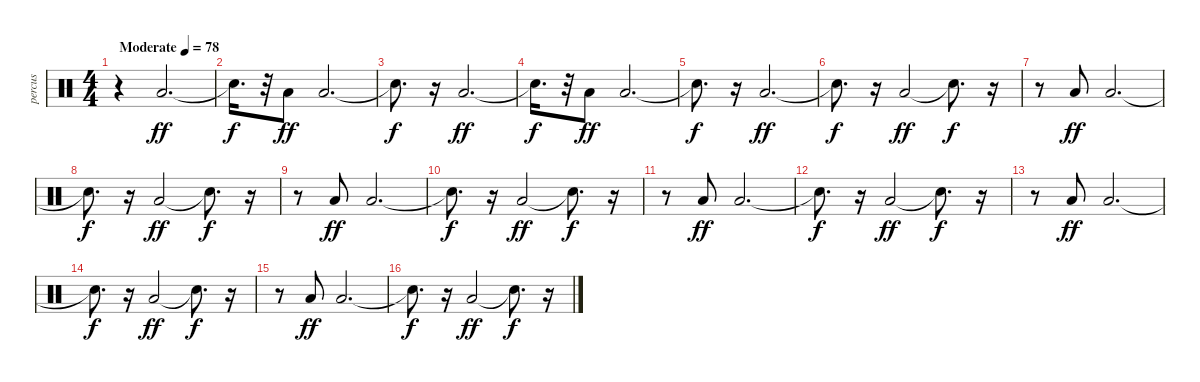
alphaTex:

\track ("percus" "percus") {instrument percussion}
\staff {score}
\articulation defaults
\ts (4 4)
\tempo (78 "Moderate")
\clef neutral
\ks c
r.4{dy ff} "Low Floor Tom (hit)".2{d} |
"Snare (hit)"{t}.16{d dy f} r.32 "Low Floor Tom (hit)".8{dy ff} "Low Floor Tom (hit)".2{d} |
"Snare (hit)"{t}.8{d dy f} r.16 "Low Floor Tom (hit)".2{d dy ff} |
"Snare (hit)"{t}.16{d dy f} r.32 "Low Floor Tom (hit)".8{dy ff} "Low Floor Tom (hit)".2{d} |
"Snare (hit)"{t}.8{d dy f} r.16 "Low Floor Tom (hit)".2{d dy ff} |
"Snare (hit)"{t}.8{d dy f} r.16 "Low Floor Tom (hit)".2{dy ff} "Snare (hit)"{t}.8{d dy f} r.16 |
r.8 "Low Floor Tom (hit)".8{dy ff} "Low Floor Tom (hit)".2{d} |
"Snare (hit)"{t}.8{d dy f} r.16 "Low Floor Tom (hit)".2{dy ff} "Snare (hit)"{t}.8{d dy f} r.16 |
r.8 "Low Floor Tom (hit)".8{dy ff} "Low Floor Tom (hit)".2{d} |
"Snare (hit)"{t}.8{d dy f} r.16 "Low Floor Tom (hit)".2{dy ff} "Snare (hit)"{t}.8{d dy f} r.16 |
r.8 "Low Floor Tom (hit)".8{dy ff} "Low Floor Tom (hit)".2{d} |
"Snare (hit)"{t}.8{d dy f} r.16 "Low Floor Tom (hit)".2{dy ff} "Snare (hit)"{t}.8{d dy f} r.16 |
r.8 "Low Floor Tom (hit)".8{dy ff} "Low Floor Tom (hit)".2{d} |
"Snare (hit)"{t}.8{d dy f} r.16 "Low Floor Tom (hit)".2{dy ff} "Snare (hit)"{t}.8{d dy f} r.16 |
r.8 "Low Floor Tom (hit)".8{dy ff} "Low Floor Tom (hit)".2{d} |
"Snare (hit)"{t}.8{d dy f} r.16 "Low Floor Tom (hit)".2{dy ff} "Snare (hit)"{t}.8{d dy f} r.16
